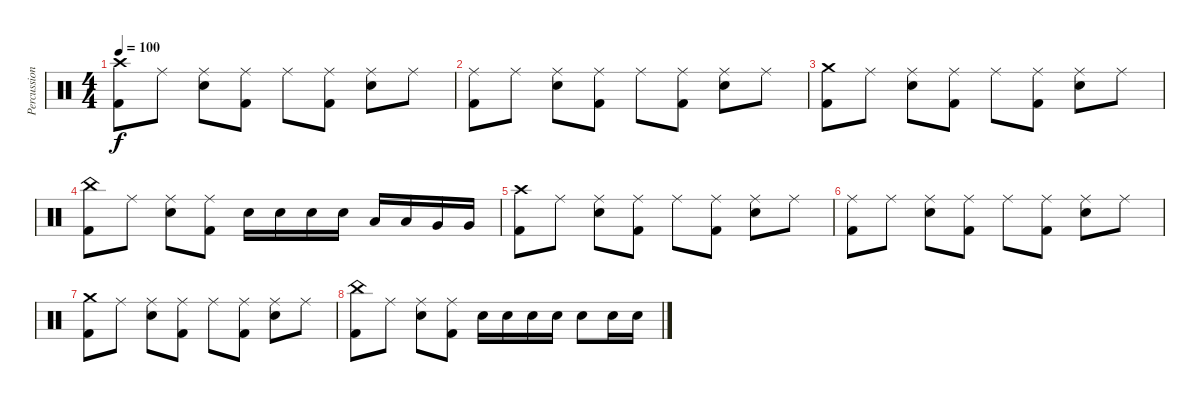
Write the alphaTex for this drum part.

\track ("Percussion" "Percussion") {instrument percussion}
\staff {score}
\articulation defaults
\ts (4 4)
\tempo 100
\clef neutral
\ks c
("Crash high (hit)" "Kick (hit) 2").8{dy f} "Ride (middle)".8 ("Ride (middle)" "Snare (hit) 2").8 ("Ride (middle)" "Kick (hit) 2").8 "Ride (middle)".8 ("Ride (middle)" "Kick (hit) 2").8 ("Ride (middle)" "Snare (hit) 2").8 "Ride (middle)".8 |
("Ride (middle)" "Kick (hit) 2").8 "Ride (middle)".8 ("Ride (middle)" "Snare (hit) 2").8 ("Ride (middle)" "Kick (hit) 2").8 "Ride (middle)".8 ("Ride (middle)" "Kick (hit) 2").8 ("Ride (middle)" "Snare (hit) 2").8 "Ride (middle)".8 |
("Crash medium (hit)" "Kick (hit) 2").8 "Ride (middle)".8 ("Ride (middle)" "Snare (hit) 2").8 ("Ride (middle)" "Kick (hit) 2").8 "Ride (middle)".8 ("Ride (middle)" "Kick (hit) 2").8 ("Ride (middle)" "Snare (hit) 2").8 "Ride (middle)".8 |
("China (hit)" "Kick (hit) 2").8 "Ride (middle)".8 ("Ride (middle)" "Snare (hit) 2").8 ("Ride (middle)" "Kick (hit) 2").8 "Snare (hit) 2".16 "Snare (hit) 2".16 "Snare (hit) 2".16 "Snare (hit) 2".16 "Low Tom (hit)".16 "Low Tom (hit)".16 "Very Low Tom (hit)".16 "Very Low Tom (hit)".16 |
("Crash high (hit)" "Kick (hit) 2").8 "Ride (middle)".8 ("Ride (middle)" "Snare (hit) 2").8 ("Ride (middle)" "Kick (hit) 2").8 "Ride (middle)".8 ("Ride (middle)" "Kick (hit) 2").8 ("Ride (middle)" "Snare (hit) 2").8 "Ride (middle)".8 |
("Ride (middle)" "Kick (hit) 2").8 "Ride (middle)".8 ("Ride (middle)" "Snare (hit) 2").8 ("Ride (middle)" "Kick (hit) 2").8 "Ride (middle)".8 ("Ride (middle)" "Kick (hit) 2").8 ("Ride (middle)" "Snare (hit) 2").8 "Ride (middle)".8 |
("Crash medium (hit)" "Kick (hit) 2").8 "Ride (middle)".8 ("Ride (middle)" "Snare (hit) 2").8 ("Ride (middle)" "Kick (hit) 2").8 "Ride (middle)".8 ("Ride (middle)" "Kick (hit) 2").8 ("Ride (middle)" "Snare (hit) 2").8 "Ride (middle)".8 |
("China (hit)" "Kick (hit) 2").8 "Ride (middle)".8 ("Ride (middle)" "Snare (hit) 2").8 ("Ride (middle)" "Kick (hit) 2").8 "Snare (hit) 2".16 "Snare (hit) 2".16 "Snare (hit) 2".16 "Snare (hit) 2".16 "Snare (hit) 2".8 "Snare (hit) 2".16 "Snare (hit) 2".16
